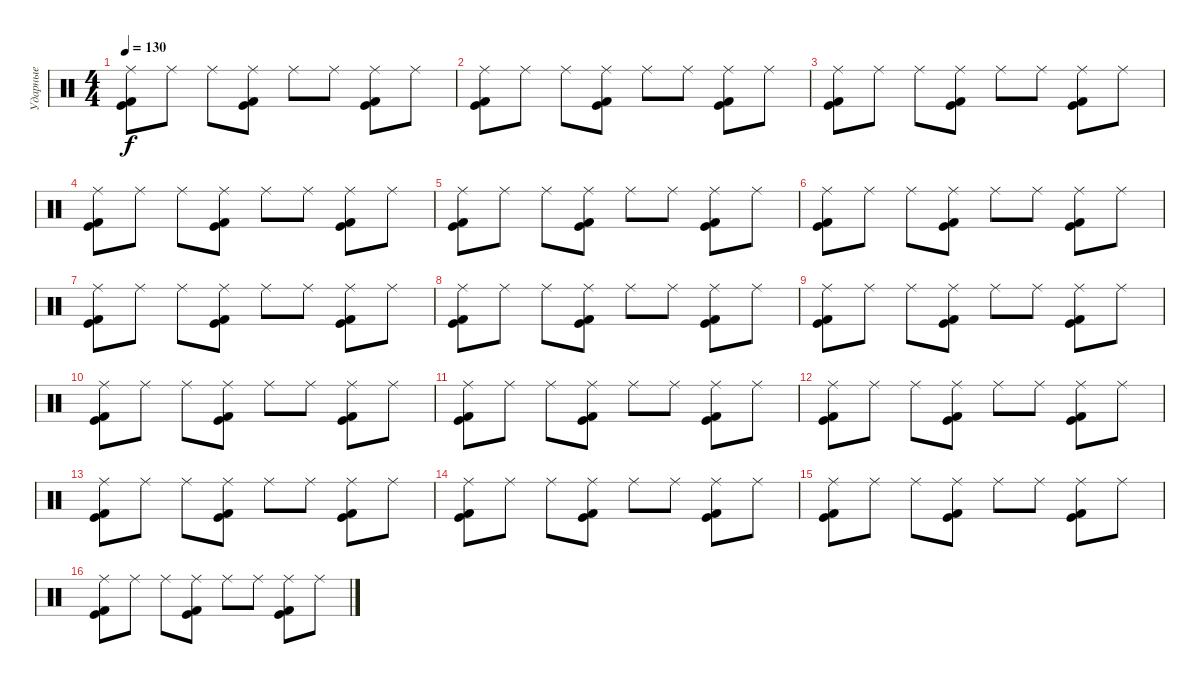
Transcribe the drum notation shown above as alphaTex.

\track ("Ударные" "Ударные") {instrument percussion}
\staff {score}
\articulation defaults
\ts (4 4)
\tempo 130
\clef neutral
\ks c
("Ride (middle)" "Kick (hit)" "Kick (hit) 2").8{dy f} "Ride (middle)".8 "Ride (middle)".8 ("Ride (middle)" "Kick (hit)" "Kick (hit) 2").8 "Ride (middle)".8 "Ride (middle)".8 ("Ride (middle)" "Kick (hit)" "Kick (hit) 2").8 "Ride (middle)".8 |
("Ride (middle)" "Kick (hit)" "Kick (hit) 2").8 "Ride (middle)".8 "Ride (middle)".8 ("Ride (middle)" "Kick (hit)" "Kick (hit) 2").8 "Ride (middle)".8 "Ride (middle)".8 ("Ride (middle)" "Kick (hit)" "Kick (hit) 2").8 "Ride (middle)".8 |
("Ride (middle)" "Kick (hit)" "Kick (hit) 2").8 "Ride (middle)".8 "Ride (middle)".8 ("Ride (middle)" "Kick (hit)" "Kick (hit) 2").8 "Ride (middle)".8 "Ride (middle)".8 ("Ride (middle)" "Kick (hit)" "Kick (hit) 2").8 "Ride (middle)".8 |
("Ride (middle)" "Kick (hit)" "Kick (hit) 2").8 "Ride (middle)".8 "Ride (middle)".8 ("Ride (middle)" "Kick (hit)" "Kick (hit) 2").8 "Ride (middle)".8 "Ride (middle)".8 ("Ride (middle)" "Kick (hit)" "Kick (hit) 2").8 "Ride (middle)".8 |
("Ride (middle)" "Kick (hit)" "Kick (hit) 2").8 "Ride (middle)".8 "Ride (middle)".8 ("Ride (middle)" "Kick (hit)" "Kick (hit) 2").8 "Ride (middle)".8 "Ride (middle)".8 ("Ride (middle)" "Kick (hit)" "Kick (hit) 2").8 "Ride (middle)".8 |
("Ride (middle)" "Kick (hit)" "Kick (hit) 2").8 "Ride (middle)".8 "Ride (middle)".8 ("Ride (middle)" "Kick (hit)" "Kick (hit) 2").8 "Ride (middle)".8 "Ride (middle)".8 ("Ride (middle)" "Kick (hit)" "Kick (hit) 2").8 "Ride (middle)".8 |
("Ride (middle)" "Kick (hit)" "Kick (hit) 2").8 "Ride (middle)".8 "Ride (middle)".8 ("Ride (middle)" "Kick (hit)" "Kick (hit) 2").8 "Ride (middle)".8 "Ride (middle)".8 ("Ride (middle)" "Kick (hit)" "Kick (hit) 2").8 "Ride (middle)".8 |
("Ride (middle)" "Kick (hit)" "Kick (hit) 2").8 "Ride (middle)".8 "Ride (middle)".8 ("Ride (middle)" "Kick (hit)" "Kick (hit) 2").8 "Ride (middle)".8 "Ride (middle)".8 ("Ride (middle)" "Kick (hit)" "Kick (hit) 2").8 "Ride (middle)".8 |
("Ride (middle)" "Kick (hit)" "Kick (hit) 2").8 "Ride (middle)".8 "Ride (middle)".8 ("Ride (middle)" "Kick (hit)" "Kick (hit) 2").8 "Ride (middle)".8 "Ride (middle)".8 ("Ride (middle)" "Kick (hit)" "Kick (hit) 2").8 "Ride (middle)".8 |
("Ride (middle)" "Kick (hit)" "Kick (hit) 2").8 "Ride (middle)".8 "Ride (middle)".8 ("Ride (middle)" "Kick (hit)" "Kick (hit) 2").8 "Ride (middle)".8 "Ride (middle)".8 ("Ride (middle)" "Kick (hit)" "Kick (hit) 2").8 "Ride (middle)".8 |
("Ride (middle)" "Kick (hit)" "Kick (hit) 2").8 "Ride (middle)".8 "Ride (middle)".8 ("Ride (middle)" "Kick (hit)" "Kick (hit) 2").8 "Ride (middle)".8 "Ride (middle)".8 ("Ride (middle)" "Kick (hit)" "Kick (hit) 2").8 "Ride (middle)".8 |
("Ride (middle)" "Kick (hit)" "Kick (hit) 2").8 "Ride (middle)".8 "Ride (middle)".8 ("Ride (middle)" "Kick (hit)" "Kick (hit) 2").8 "Ride (middle)".8 "Ride (middle)".8 ("Ride (middle)" "Kick (hit)" "Kick (hit) 2").8 "Ride (middle)".8 |
("Ride (middle)" "Kick (hit)" "Kick (hit) 2").8 "Ride (middle)".8 "Ride (middle)".8 ("Ride (middle)" "Kick (hit)" "Kick (hit) 2").8 "Ride (middle)".8 "Ride (middle)".8 ("Ride (middle)" "Kick (hit)" "Kick (hit) 2").8 "Ride (middle)".8 |
("Ride (middle)" "Kick (hit)" "Kick (hit) 2").8 "Ride (middle)".8 "Ride (middle)".8 ("Ride (middle)" "Kick (hit)" "Kick (hit) 2").8 "Ride (middle)".8 "Ride (middle)".8 ("Ride (middle)" "Kick (hit)" "Kick (hit) 2").8 "Ride (middle)".8 |
("Ride (middle)" "Kick (hit)" "Kick (hit) 2").8 "Ride (middle)".8 "Ride (middle)".8 ("Ride (middle)" "Kick (hit)" "Kick (hit) 2").8 "Ride (middle)".8 "Ride (middle)".8 ("Ride (middle)" "Kick (hit)" "Kick (hit) 2").8 "Ride (middle)".8 |
("Ride (middle)" "Kick (hit)" "Kick (hit) 2").8 "Ride (middle)".8 "Ride (middle)".8 ("Ride (middle)" "Kick (hit)" "Kick (hit) 2").8 "Ride (middle)".8 "Ride (middle)".8 ("Ride (middle)" "Kick (hit)" "Kick (hit) 2").8 "Ride (middle)".8
